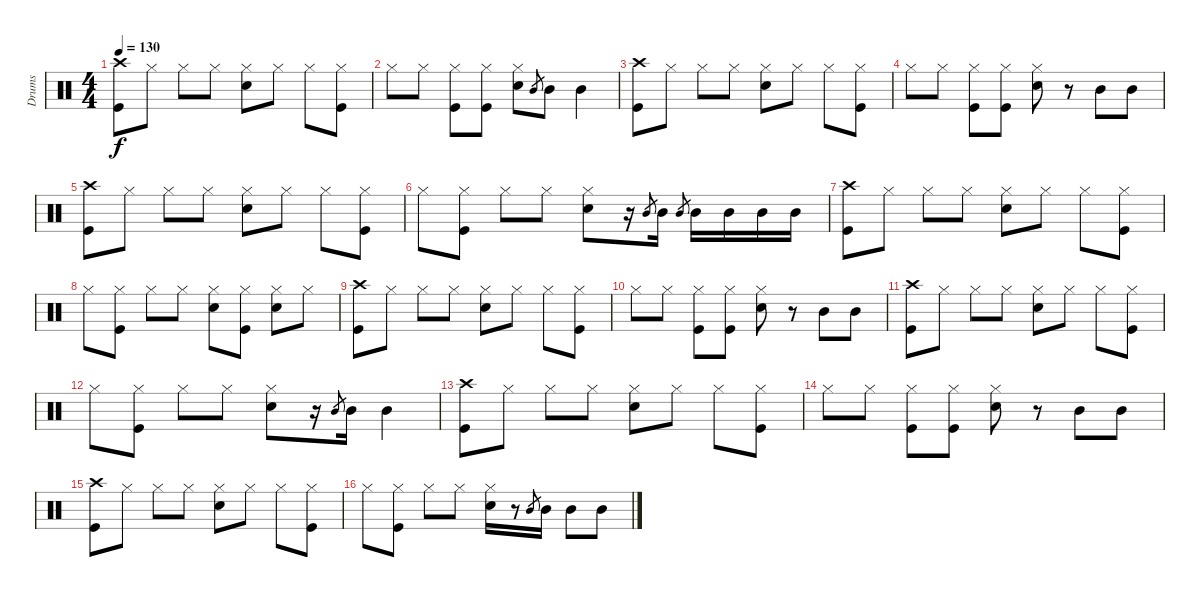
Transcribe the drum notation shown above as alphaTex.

\track ("Drums" "Drums") {instrument percussion}
\staff {score}
\articulation defaults
\ts (4 4)
\tempo 130
\clef neutral
\ks c
("Crash high (hit)" "Kick (hit)").8{dy f} "Hi-Hat (closed)".8 "Hi-Hat (closed)".8 "Hi-Hat (closed)".8 ("Hi-Hat (closed)" "Snare (hit) 2").8 "Hi-Hat (closed)".8 "Hi-Hat (closed)".8 ("Hi-Hat (closed)" "Kick (hit)").8 |
"Hi-Hat (closed)".8 "Hi-Hat (closed)".8 ("Hi-Hat (closed)" "Kick (hit)").8 ("Hi-Hat (closed)" "Kick (hit)").8 ("Hi-Hat (closed)" "Snare (hit) 2").8 "Mid Tom (hit)".8{gr} "Mid Tom (hit)".8 "Mid Tom (hit)".4 |
("Crash high (hit)" "Kick (hit)").8 "Hi-Hat (closed)".8 "Hi-Hat (closed)".8 "Hi-Hat (closed)".8 ("Hi-Hat (closed)" "Snare (hit) 2").8 "Hi-Hat (closed)".8 "Hi-Hat (closed)".8 ("Hi-Hat (closed)" "Kick (hit)").8 |
"Hi-Hat (closed)".8 "Hi-Hat (closed)".8 ("Hi-Hat (closed)" "Kick (hit)").8 ("Hi-Hat (closed)" "Kick (hit)").8 ("Hi-Hat (closed)" "Snare (hit) 2").8 r.8 "Mid Tom (hit)".8 "Mid Tom (hit)".8 |
("Crash high (hit)" "Kick (hit)").8 "Hi-Hat (closed)".8 "Hi-Hat (closed)".8 "Hi-Hat (closed)".8 ("Hi-Hat (closed)" "Snare (hit) 2").8 "Hi-Hat (closed)".8 "Hi-Hat (closed)".8 ("Hi-Hat (closed)" "Kick (hit)").8 |
"Hi-Hat (closed)".8 ("Hi-Hat (closed)" "Kick (hit)").8 "Hi-Hat (closed)".8 "Hi-Hat (closed)".8 ("Hi-Hat (closed)" "Snare (hit) 2").8 r.16 "Mid Tom (hit)".8{gr} "Mid Tom (hit)".16 "Mid Tom (hit)".8{gr} "Mid Tom (hit)".16 "Mid Tom (hit)".16 "Mid Tom (hit)".16 "Mid Tom (hit)".16 |
("Crash high (hit)" "Kick (hit)").8 "Hi-Hat (closed)".8 "Hi-Hat (closed)".8 "Hi-Hat (closed)".8 ("Hi-Hat (closed)" "Snare (hit) 2").8 "Hi-Hat (closed)".8 "Hi-Hat (closed)".8 ("Hi-Hat (closed)" "Kick (hit)").8 |
"Hi-Hat (closed)".8 ("Hi-Hat (closed)" "Kick (hit)").8 "Hi-Hat (closed)".8 "Hi-Hat (closed)".8 ("Hi-Hat (closed)" "Snare (hit) 2").8 ("Hi-Hat (closed)" "Kick (hit)").8 ("Hi-Hat (closed)" "Snare (hit) 2").8 "Hi-Hat (closed)".8 |
("Crash high (hit)" "Kick (hit)").8 "Hi-Hat (closed)".8 "Hi-Hat (closed)".8 "Hi-Hat (closed)".8 ("Hi-Hat (closed)" "Snare (hit) 2").8 "Hi-Hat (closed)".8 "Hi-Hat (closed)".8 ("Hi-Hat (closed)" "Kick (hit)").8 |
"Hi-Hat (closed)".8 "Hi-Hat (closed)".8 ("Hi-Hat (closed)" "Kick (hit)").8 ("Hi-Hat (closed)" "Kick (hit)").8 ("Hi-Hat (closed)" "Snare (hit) 2").8 r.8 "Mid Tom (hit)".8 "Mid Tom (hit)".8 |
("Crash high (hit)" "Kick (hit)").8 "Hi-Hat (closed)".8 "Hi-Hat (closed)".8 "Hi-Hat (closed)".8 ("Hi-Hat (closed)" "Snare (hit) 2").8 "Hi-Hat (closed)".8 "Hi-Hat (closed)".8 ("Hi-Hat (closed)" "Kick (hit)").8 |
"Hi-Hat (closed)".8 ("Hi-Hat (closed)" "Kick (hit)").8 "Hi-Hat (closed)".8 "Hi-Hat (closed)".8 ("Hi-Hat (closed)" "Snare (hit) 2").8 r.16 "Mid Tom (hit)".8{gr} "Mid Tom (hit)".16 "Mid Tom (hit)".4 |
("Crash high (hit)" "Kick (hit)").8 "Hi-Hat (closed)".8 "Hi-Hat (closed)".8 "Hi-Hat (closed)".8 ("Hi-Hat (closed)" "Snare (hit) 2").8 "Hi-Hat (closed)".8 "Hi-Hat (closed)".8 ("Hi-Hat (closed)" "Kick (hit)").8 |
"Hi-Hat (closed)".8 "Hi-Hat (closed)".8 ("Hi-Hat (closed)" "Kick (hit)").8 ("Hi-Hat (closed)" "Kick (hit)").8 ("Hi-Hat (closed)" "Snare (hit) 2").8 r.8 "Mid Tom (hit)".8 "Mid Tom (hit)".8 |
("Crash high (hit)" "Kick (hit)").8 "Hi-Hat (closed)".8 "Hi-Hat (closed)".8 "Hi-Hat (closed)".8 ("Hi-Hat (closed)" "Snare (hit) 2").8 "Hi-Hat (closed)".8 "Hi-Hat (closed)".8 ("Hi-Hat (closed)" "Kick (hit)").8 |
"Hi-Hat (closed)".8 ("Hi-Hat (closed)" "Kick (hit)").8 "Hi-Hat (closed)".8 "Hi-Hat (closed)".8 ("Hi-Hat (closed)" "Snare (hit) 2").16 r.8 "Mid Tom (hit)".8{gr} "Mid Tom (hit)".16 "Mid Tom (hit)".8 "Mid Tom (hit)".8
